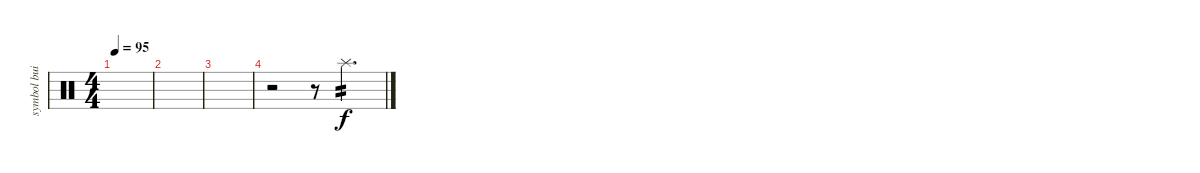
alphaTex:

\track ("symbol buildup" "symbol bui") {instrument percussion}
\staff {score}
\articulation defaults
\ts (4 4)
\tempo 95
\clef neutral
\ks c
|
|
|
r.2 r.8 "Splash (hit)".4{d tp 2}
